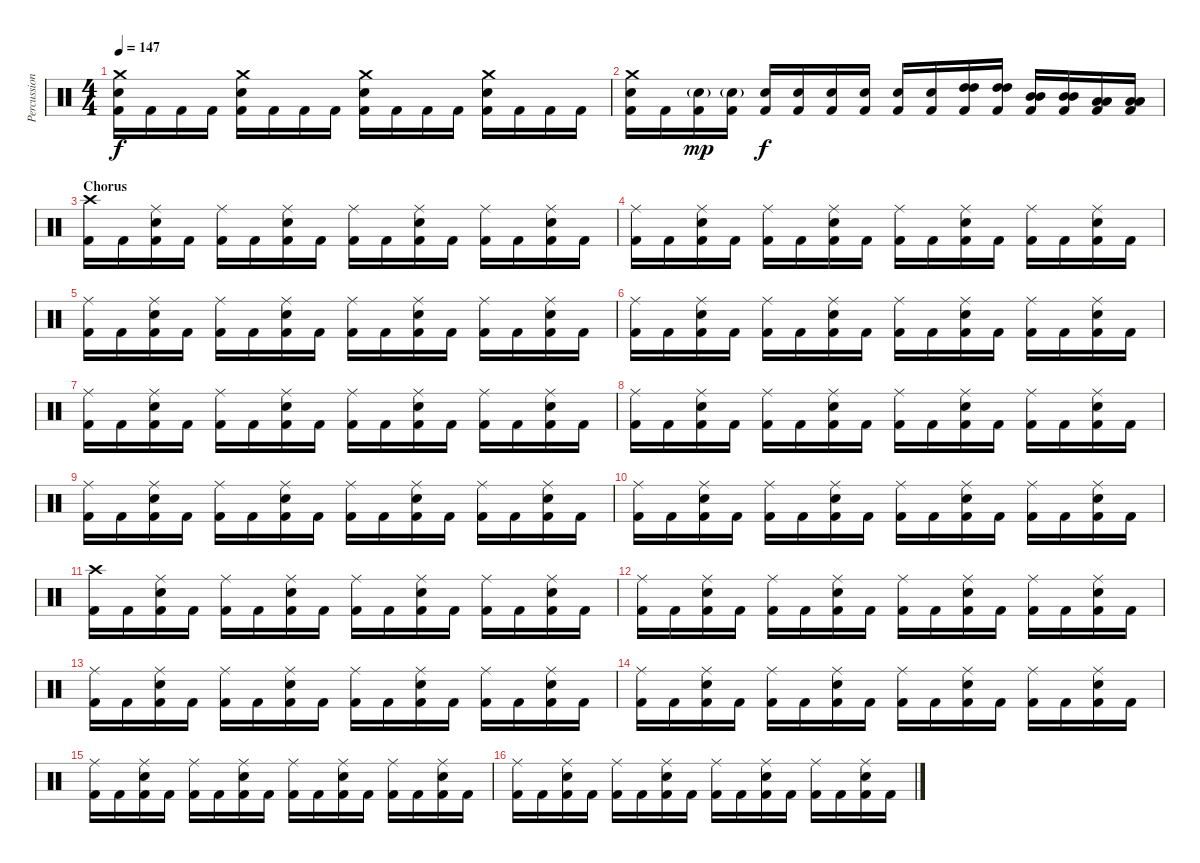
\track ("Percussion" "Percussion") {instrument percussion}
\staff {score}
\articulation defaults
\ts (4 4)
\tempo 147
\clef neutral
\ks c
("Kick (hit) 2" "Snare (hit) 2" "Crash medium (hit)").16{dy f} "Kick (hit) 2".16 "Kick (hit) 2".16 "Kick (hit) 2".16 ("Kick (hit) 2" "Snare (hit) 2" "Crash medium (hit)").16 "Kick (hit) 2".16 "Kick (hit) 2".16 "Kick (hit) 2".16 ("Kick (hit) 2" "Snare (hit) 2" "Crash medium (hit)").16 "Kick (hit) 2".16 "Kick (hit) 2".16 "Kick (hit) 2".16 ("Kick (hit) 2" "Snare (hit) 2" "Crash medium (hit)").16 "Kick (hit) 2".16 "Kick (hit) 2".16 "Kick (hit) 2".16 |
("Kick (hit) 2" "Snare (hit) 2" "Crash medium (hit)").16 "Kick (hit) 2".16 ("Kick (hit) 2" "Snare (hit) 2"{g}).16{dy mp} ("Kick (hit) 2" "Snare (hit) 2"{g}).16 ("Kick (hit) 2" "Snare (hit) 2").16{dy f} ("Kick (hit) 2" "Snare (hit) 2").16 ("Kick (hit) 2" "Snare (hit) 2").16 ("Kick (hit) 2" "Snare (hit) 2").16 ("Kick (hit) 2" "Snare (hit) 2").16 ("Kick (hit) 2" "Snare (hit) 2").16 ("Kick (hit) 2" "High Tom (hit)" "High Tom (hit)").16 ("Kick (hit) 2" "High Tom (hit)" "High Tom (hit)").16 ("Kick (hit) 2" "Mid Tom (hit)" "Mid Tom (hit)").16 ("Kick (hit) 2" "Mid Tom (hit)" "Mid Tom (hit)").16 ("Kick (hit) 2" "Low Tom (hit)" "Low Tom (hit)").16 ("Kick (hit) 2" "Low Tom (hit)" "Low Tom (hit)").16 |
\section ("" "Chorus")
("Kick (hit) 2" "Crash high (hit)").16 "Kick (hit) 2".16 ("Kick (hit) 2" "Snare (hit) 2" "Ride (middle)").16 "Kick (hit) 2".16 ("Kick (hit) 2" "Ride (middle)").16 "Kick (hit) 2".16 ("Kick (hit) 2" "Snare (hit) 2" "Ride (middle)").16 "Kick (hit) 2".16 ("Kick (hit) 2" "Ride (middle)").16 "Kick (hit) 2".16 ("Kick (hit) 2" "Snare (hit) 2" "Ride (middle)").16 "Kick (hit) 2".16 ("Kick (hit) 2" "Ride (middle)").16 "Kick (hit) 2".16 ("Kick (hit) 2" "Snare (hit) 2" "Ride (middle)").16 "Kick (hit) 2".16 |
("Kick (hit) 2" "Ride (middle)").16 "Kick (hit) 2".16 ("Kick (hit) 2" "Snare (hit) 2" "Ride (middle)").16 "Kick (hit) 2".16 ("Kick (hit) 2" "Ride (middle)").16 "Kick (hit) 2".16 ("Kick (hit) 2" "Snare (hit) 2" "Ride (middle)").16 "Kick (hit) 2".16 ("Kick (hit) 2" "Ride (middle)").16 "Kick (hit) 2".16 ("Kick (hit) 2" "Snare (hit) 2" "Ride (middle)").16 "Kick (hit) 2".16 ("Kick (hit) 2" "Ride (middle)").16 "Kick (hit) 2".16 ("Kick (hit) 2" "Snare (hit) 2" "Ride (middle)").16 "Kick (hit) 2".16 |
("Kick (hit) 2" "Ride (middle)").16 "Kick (hit) 2".16 ("Kick (hit) 2" "Snare (hit) 2" "Ride (middle)").16 "Kick (hit) 2".16 ("Kick (hit) 2" "Ride (middle)").16 "Kick (hit) 2".16 ("Kick (hit) 2" "Snare (hit) 2" "Ride (middle)").16 "Kick (hit) 2".16 ("Kick (hit) 2" "Ride (middle)").16 "Kick (hit) 2".16 ("Kick (hit) 2" "Snare (hit) 2" "Ride (middle)").16 "Kick (hit) 2".16 ("Kick (hit) 2" "Ride (middle)").16 "Kick (hit) 2".16 ("Kick (hit) 2" "Snare (hit) 2" "Ride (middle)").16 "Kick (hit) 2".16 |
("Kick (hit) 2" "Ride (middle)").16 "Kick (hit) 2".16 ("Kick (hit) 2" "Snare (hit) 2" "Ride (middle)").16 "Kick (hit) 2".16 ("Kick (hit) 2" "Ride (middle)").16 "Kick (hit) 2".16 ("Kick (hit) 2" "Snare (hit) 2" "Ride (middle)").16 "Kick (hit) 2".16 ("Kick (hit) 2" "Ride (middle)").16 "Kick (hit) 2".16 ("Kick (hit) 2" "Snare (hit) 2" "Ride (middle)").16 "Kick (hit) 2".16 ("Kick (hit) 2" "Ride (middle)").16 "Kick (hit) 2".16 ("Kick (hit) 2" "Snare (hit) 2" "Ride (middle)").16 "Kick (hit) 2".16 |
("Kick (hit) 2" "Ride (middle)").16 "Kick (hit) 2".16 ("Kick (hit) 2" "Snare (hit) 2" "Ride (middle)").16 "Kick (hit) 2".16 ("Kick (hit) 2" "Ride (middle)").16 "Kick (hit) 2".16 ("Kick (hit) 2" "Snare (hit) 2" "Ride (middle)").16 "Kick (hit) 2".16 ("Kick (hit) 2" "Ride (middle)").16 "Kick (hit) 2".16 ("Kick (hit) 2" "Snare (hit) 2" "Ride (middle)").16 "Kick (hit) 2".16 ("Kick (hit) 2" "Ride (middle)").16 "Kick (hit) 2".16 ("Kick (hit) 2" "Snare (hit) 2" "Ride (middle)").16 "Kick (hit) 2".16 |
("Kick (hit) 2" "Ride (middle)").16 "Kick (hit) 2".16 ("Kick (hit) 2" "Snare (hit) 2" "Ride (middle)").16 "Kick (hit) 2".16 ("Kick (hit) 2" "Ride (middle)").16 "Kick (hit) 2".16 ("Kick (hit) 2" "Snare (hit) 2" "Ride (middle)").16 "Kick (hit) 2".16 ("Kick (hit) 2" "Ride (middle)").16 "Kick (hit) 2".16 ("Kick (hit) 2" "Snare (hit) 2" "Ride (middle)").16 "Kick (hit) 2".16 ("Kick (hit) 2" "Ride (middle)").16 "Kick (hit) 2".16 ("Kick (hit) 2" "Snare (hit) 2" "Ride (middle)").16 "Kick (hit) 2".16 |
("Kick (hit) 2" "Ride (middle)").16 "Kick (hit) 2".16 ("Kick (hit) 2" "Snare (hit) 2" "Ride (middle)").16 "Kick (hit) 2".16 ("Kick (hit) 2" "Ride (middle)").16 "Kick (hit) 2".16 ("Kick (hit) 2" "Snare (hit) 2" "Ride (middle)").16 "Kick (hit) 2".16 ("Kick (hit) 2" "Ride (middle)").16 "Kick (hit) 2".16 ("Kick (hit) 2" "Snare (hit) 2" "Ride (middle)").16 "Kick (hit) 2".16 ("Kick (hit) 2" "Ride (middle)").16 "Kick (hit) 2".16 ("Kick (hit) 2" "Snare (hit) 2" "Ride (middle)").16 "Kick (hit) 2".16 |
("Kick (hit) 2" "Ride (middle)").16 "Kick (hit) 2".16 ("Kick (hit) 2" "Snare (hit) 2" "Ride (middle)").16 "Kick (hit) 2".16 ("Kick (hit) 2" "Ride (middle)").16 "Kick (hit) 2".16 ("Kick (hit) 2" "Snare (hit) 2" "Ride (middle)").16 "Kick (hit) 2".16 ("Kick (hit) 2" "Ride (middle)").16 "Kick (hit) 2".16 ("Kick (hit) 2" "Snare (hit) 2" "Ride (middle)").16 "Kick (hit) 2".16 ("Kick (hit) 2" "Ride (middle)").16 "Kick (hit) 2".16 ("Kick (hit) 2" "Snare (hit) 2" "Ride (middle)").16 "Kick (hit) 2".16 |
("Kick (hit) 2" "Crash high (hit)").16 "Kick (hit) 2".16 ("Kick (hit) 2" "Snare (hit) 2" "Ride (middle)").16 "Kick (hit) 2".16 ("Kick (hit) 2" "Ride (middle)").16 "Kick (hit) 2".16 ("Kick (hit) 2" "Snare (hit) 2" "Ride (middle)").16 "Kick (hit) 2".16 ("Kick (hit) 2" "Ride (middle)").16 "Kick (hit) 2".16 ("Kick (hit) 2" "Snare (hit) 2" "Ride (middle)").16 "Kick (hit) 2".16 ("Kick (hit) 2" "Ride (middle)").16 "Kick (hit) 2".16 ("Kick (hit) 2" "Snare (hit) 2" "Ride (middle)").16 "Kick (hit) 2".16 |
("Kick (hit) 2" "Ride (middle)").16 "Kick (hit) 2".16 ("Kick (hit) 2" "Snare (hit) 2" "Ride (middle)").16 "Kick (hit) 2".16 ("Kick (hit) 2" "Ride (middle)").16 "Kick (hit) 2".16 ("Kick (hit) 2" "Snare (hit) 2" "Ride (middle)").16 "Kick (hit) 2".16 ("Kick (hit) 2" "Ride (middle)").16 "Kick (hit) 2".16 ("Kick (hit) 2" "Snare (hit) 2" "Ride (middle)").16 "Kick (hit) 2".16 ("Kick (hit) 2" "Ride (middle)").16 "Kick (hit) 2".16 ("Kick (hit) 2" "Snare (hit) 2" "Ride (middle)").16 "Kick (hit) 2".16 |
("Kick (hit) 2" "Ride (middle)").16 "Kick (hit) 2".16 ("Kick (hit) 2" "Snare (hit) 2" "Ride (middle)").16 "Kick (hit) 2".16 ("Kick (hit) 2" "Ride (middle)").16 "Kick (hit) 2".16 ("Kick (hit) 2" "Snare (hit) 2" "Ride (middle)").16 "Kick (hit) 2".16 ("Kick (hit) 2" "Ride (middle)").16 "Kick (hit) 2".16 ("Kick (hit) 2" "Snare (hit) 2" "Ride (middle)").16 "Kick (hit) 2".16 ("Kick (hit) 2" "Ride (middle)").16 "Kick (hit) 2".16 ("Kick (hit) 2" "Snare (hit) 2" "Ride (middle)").16 "Kick (hit) 2".16 |
("Kick (hit) 2" "Ride (middle)").16 "Kick (hit) 2".16 ("Kick (hit) 2" "Snare (hit) 2" "Ride (middle)").16 "Kick (hit) 2".16 ("Kick (hit) 2" "Ride (middle)").16 "Kick (hit) 2".16 ("Kick (hit) 2" "Snare (hit) 2" "Ride (middle)").16 "Kick (hit) 2".16 ("Kick (hit) 2" "Ride (middle)").16 "Kick (hit) 2".16 ("Kick (hit) 2" "Snare (hit) 2" "Ride (middle)").16 "Kick (hit) 2".16 ("Kick (hit) 2" "Ride (middle)").16 "Kick (hit) 2".16 ("Kick (hit) 2" "Snare (hit) 2" "Ride (middle)").16 "Kick (hit) 2".16 |
("Kick (hit) 2" "Ride (middle)").16 "Kick (hit) 2".16 ("Kick (hit) 2" "Snare (hit) 2" "Ride (middle)").16 "Kick (hit) 2".16 ("Kick (hit) 2" "Ride (middle)").16 "Kick (hit) 2".16 ("Kick (hit) 2" "Snare (hit) 2" "Ride (middle)").16 "Kick (hit) 2".16 ("Kick (hit) 2" "Ride (middle)").16 "Kick (hit) 2".16 ("Kick (hit) 2" "Snare (hit) 2" "Ride (middle)").16 "Kick (hit) 2".16 ("Kick (hit) 2" "Ride (middle)").16 "Kick (hit) 2".16 ("Kick (hit) 2" "Snare (hit) 2" "Ride (middle)").16 "Kick (hit) 2".16 |
("Kick (hit) 2" "Ride (middle)").16 "Kick (hit) 2".16 ("Kick (hit) 2" "Snare (hit) 2" "Ride (middle)").16 "Kick (hit) 2".16 ("Kick (hit) 2" "Ride (middle)").16 "Kick (hit) 2".16 ("Kick (hit) 2" "Snare (hit) 2" "Ride (middle)").16 "Kick (hit) 2".16 ("Kick (hit) 2" "Ride (middle)").16 "Kick (hit) 2".16 ("Kick (hit) 2" "Snare (hit) 2" "Ride (middle)").16 "Kick (hit) 2".16 ("Kick (hit) 2" "Ride (middle)").16 "Kick (hit) 2".16 ("Kick (hit) 2" "Snare (hit) 2" "Ride (middle)").16 "Kick (hit) 2".16
